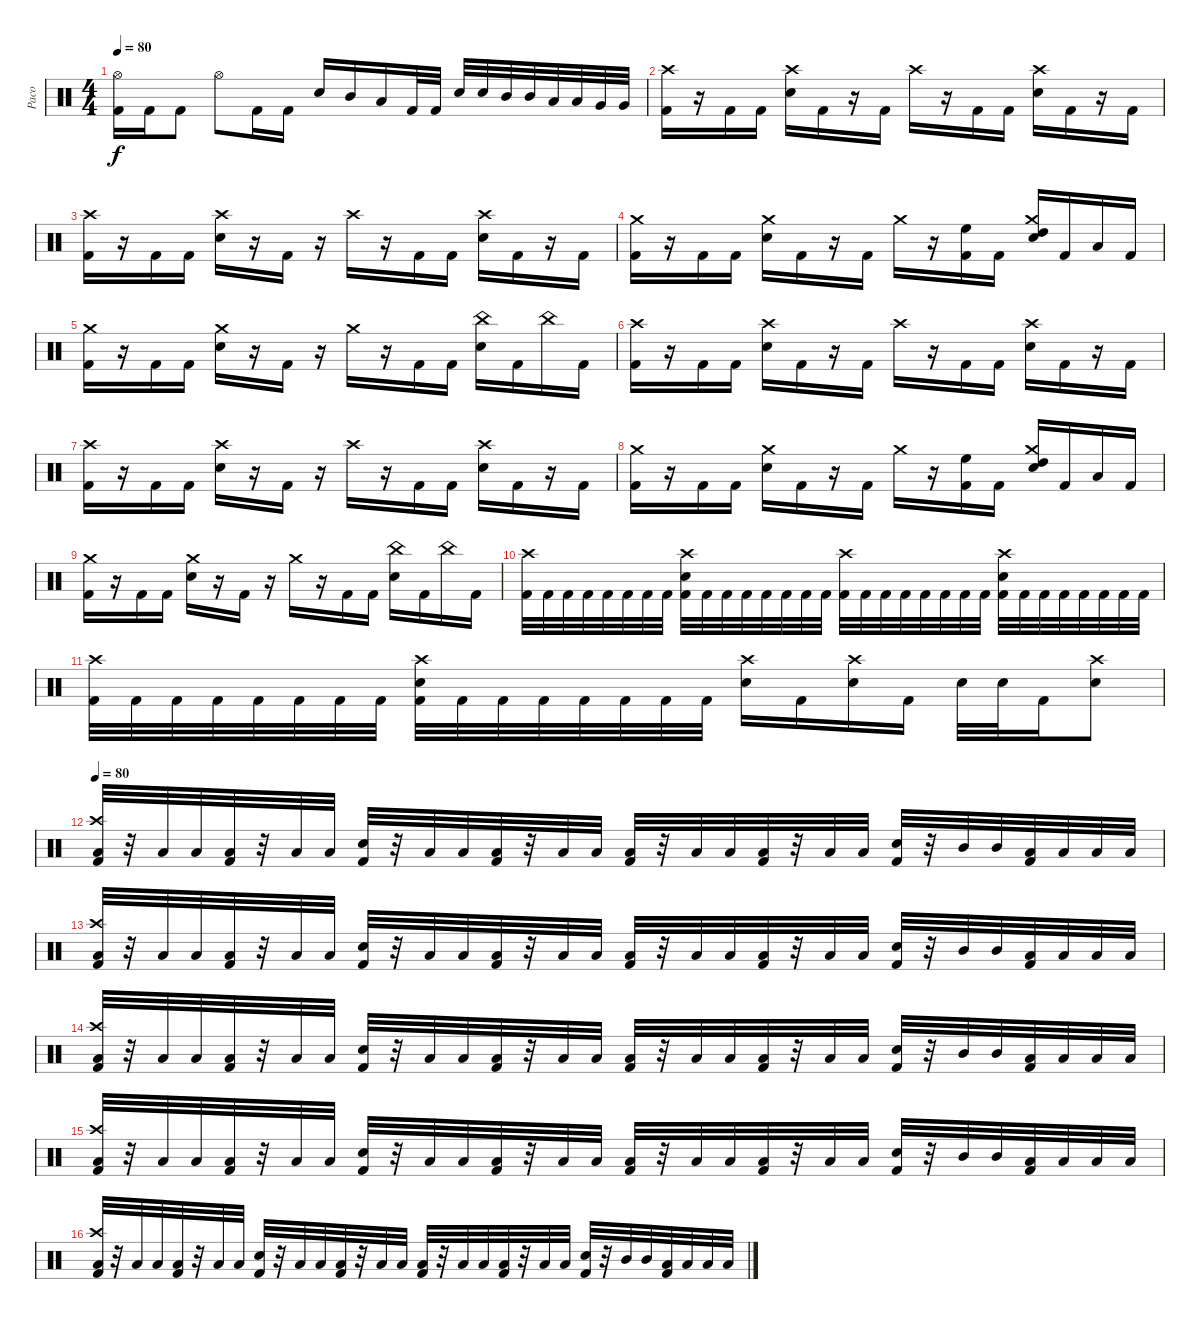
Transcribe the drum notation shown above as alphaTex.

\track ("Paco" "Paco") {instrument percussion}
\staff {score}
\articulation defaults
\ts (4 4)
\tempo 80
\clef neutral
\ks c
("Hi-Hat (open)" "Kick (hit) 2").16{dy f} "Kick (hit) 2".16 "Kick (hit) 2".8 "Hi-Hat (open)".8 "Kick (hit) 2".16 "Kick (hit) 2".16 "Electric Snare (hit)".16 "Mid Tom (hit)".16 "Low Tom (hit)".16 "Kick (hit) 2".32 "Kick (hit) 2".32 "Electric Snare (hit)".32 "Electric Snare (hit)".32 "Mid Tom (hit)".32 "Mid Tom (hit)".32 "Low Tom (hit)".32 "Low Tom (hit)".32 "Very Low Tom (hit)".32 "Very Low Tom (hit)".32 |
("Crash high (hit)" "Kick (hit) 2").16 r.16 "Kick (hit) 2".16 "Kick (hit) 2".16 ("Crash high (hit)" "Electric Snare (hit)").16 "Kick (hit) 2".16 r.16 "Kick (hit) 2".16 "Crash high (hit)".16 r.16 "Kick (hit) 2".16 "Kick (hit) 2".16 ("Crash high (hit)" "Electric Snare (hit)").16 "Kick (hit) 2".16 r.16 "Kick (hit) 2".16 |
("Crash high (hit)" "Kick (hit) 2").16 r.16 "Kick (hit) 2".16 "Kick (hit) 2".16 ("Crash high (hit)" "Electric Snare (hit)").16 r.16 "Kick (hit) 2".16 r.16 "Crash high (hit)".16 r.16 "Kick (hit) 2".16 "Kick (hit) 2".16 ("Crash high (hit)" "Electric Snare (hit)").16 "Kick (hit) 2".16 r.16 "Kick (hit) 2".16 |
("Crash medium (hit)" "Kick (hit) 2").16 r.16 "Kick (hit) 2".16 "Kick (hit) 2".16 ("Crash medium (hit)" "Electric Snare (hit)").16 "Kick (hit) 2".16 r.16 "Kick (hit) 2".16 "Crash medium (hit)".16 r.16 ("High Floor Tom (hit)" "Kick (hit) 2").16 "Kick (hit) 2".16 ("Crash medium (hit)" "High Tom (hit)" "Electric Snare (hit)").16 "Kick (hit) 2".16 "Low Tom (hit)".16 "Kick (hit) 2".16 |
("Crash medium (hit)" "Kick (hit) 2").16 r.16 "Kick (hit) 2".16 "Kick (hit) 2".16 ("Crash medium (hit)" "Electric Snare (hit)").16 r.16 "Kick (hit) 2".16 r.16 "Crash medium (hit)".16 r.16 "Kick (hit) 2".16 "Kick (hit) 2".16 ("China (hit)" "Electric Snare (hit)").16 "Kick (hit) 2".16 "China (hit)".16 "Kick (hit) 2".16 |
("Crash high (hit)" "Kick (hit) 2").16 r.16 "Kick (hit) 2".16 "Kick (hit) 2".16 ("Crash high (hit)" "Electric Snare (hit)").16 "Kick (hit) 2".16 r.16 "Kick (hit) 2".16 "Crash high (hit)".16 r.16 "Kick (hit) 2".16 "Kick (hit) 2".16 ("Crash high (hit)" "Electric Snare (hit)").16 "Kick (hit) 2".16 r.16 "Kick (hit) 2".16 |
("Crash high (hit)" "Kick (hit) 2").16 r.16 "Kick (hit) 2".16 "Kick (hit) 2".16 ("Crash high (hit)" "Electric Snare (hit)").16 r.16 "Kick (hit) 2".16 r.16 "Crash high (hit)".16 r.16 "Kick (hit) 2".16 "Kick (hit) 2".16 ("Crash high (hit)" "Electric Snare (hit)").16 "Kick (hit) 2".16 r.16 "Kick (hit) 2".16 |
("Crash medium (hit)" "Kick (hit) 2").16 r.16 "Kick (hit) 2".16 "Kick (hit) 2".16 ("Crash medium (hit)" "Electric Snare (hit)").16 "Kick (hit) 2".16 r.16 "Kick (hit) 2".16 "Crash medium (hit)".16 r.16 ("High Floor Tom (hit)" "Kick (hit) 2").16 "Kick (hit) 2".16 ("Crash medium (hit)" "High Tom (hit)" "Electric Snare (hit)").16 "Kick (hit) 2".16 "Low Tom (hit)".16 "Kick (hit) 2".16 |
("Crash medium (hit)" "Kick (hit) 2").16 r.16 "Kick (hit) 2".16 "Kick (hit) 2".16 ("Crash medium (hit)" "Electric Snare (hit)").16 r.16 "Kick (hit) 2".16 r.16 "Crash medium (hit)".16 r.16 "Kick (hit) 2".16 "Kick (hit) 2".16 ("China (hit)" "Electric Snare (hit)").16 "Kick (hit) 2".16 "China (hit)".16 "Kick (hit) 2".16 |
("Crash high (hit)" "Kick (hit) 2").32 "Kick (hit) 2".32 "Kick (hit) 2".32 "Kick (hit) 2".32 "Kick (hit) 2".32 "Kick (hit) 2".32 "Kick (hit) 2".32 "Kick (hit) 2".32 ("Crash high (hit)" "Electric Snare (hit)" "Kick (hit) 2").32 "Kick (hit) 2".32 "Kick (hit) 2".32 "Kick (hit) 2".32 "Kick (hit) 2".32 "Kick (hit) 2".32 "Kick (hit) 2".32 "Kick (hit) 2".32 ("Crash high (hit)" "Kick (hit) 2").32 "Kick (hit) 2".32 "Kick (hit) 2".32 "Kick (hit) 2".32 "Kick (hit) 2".32 "Kick (hit) 2".32 "Kick (hit) 2".32 "Kick (hit) 2".32 ("Crash high (hit)" "Electric Snare (hit)" "Kick (hit) 2").32 "Kick (hit) 2".32 "Kick (hit) 2".32 "Kick (hit) 2".32 "Kick (hit) 2".32 "Kick (hit) 2".32 "Kick (hit) 2".32 "Kick (hit) 2".32 |
("Crash high (hit)" "Kick (hit) 2").32 "Kick (hit) 2".32 "Kick (hit) 2".32 "Kick (hit) 2".32 "Kick (hit) 2".32 "Kick (hit) 2".32 "Kick (hit) 2".32 "Kick (hit) 2".32 ("Crash high (hit)" "Electric Snare (hit)" "Kick (hit) 2").32 "Kick (hit) 2".32 "Kick (hit) 2".32 "Kick (hit) 2".32 "Kick (hit) 2".32 "Kick (hit) 2".32 "Kick (hit) 2".32 "Kick (hit) 2".32 ("Crash high (hit)" "Electric Snare (hit)").16 "Kick (hit) 2".16 ("Crash high (hit)" "Electric Snare (hit)").16 "Kick (hit) 2".16 "Electric Snare (hit)".32 "Electric Snare (hit)".32 "Kick (hit) 2".16 ("Crash high (hit)" "Electric Snare (hit)").8 |
\tempo 80
("Crash high (hit)" "Low Floor Tom (hit)" "Kick (hit) 2").32 r.32 "Low Floor Tom (hit)".32 "Low Floor Tom (hit)".32 ("Low Floor Tom (hit)" "Kick (hit) 2").32 r.32 "Low Floor Tom (hit)".32 "Low Floor Tom (hit)".32 ("Electric Snare (hit)" "Kick (hit) 2").32 r.32 "Low Floor Tom (hit)".32 "Low Floor Tom (hit)".32 ("Low Floor Tom (hit)" "Kick (hit) 2").32 r.32 "Low Floor Tom (hit)".32 "Low Floor Tom (hit)".32 ("Low Floor Tom (hit)" "Kick (hit) 2").32 r.32 "Low Floor Tom (hit)".32 "Low Floor Tom (hit)".32 ("Low Floor Tom (hit)" "Kick (hit) 2").32 r.32 "Low Floor Tom (hit)".32 "Low Floor Tom (hit)".32 ("Electric Snare (hit)" "Kick (hit) 2").32 r.32 "Mid Tom (hit)".32 "Mid Tom (hit)".32 ("Low Tom (hit)" "Kick (hit) 2").32 "Low Tom (hit)".32 "Low Floor Tom (hit)".32 "Low Floor Tom (hit)".32 |
("Crash high (hit)" "Low Floor Tom (hit)" "Kick (hit) 2").32 r.32 "Low Floor Tom (hit)".32 "Low Floor Tom (hit)".32 ("Low Floor Tom (hit)" "Kick (hit) 2").32 r.32 "Low Floor Tom (hit)".32 "Low Floor Tom (hit)".32 ("Electric Snare (hit)" "Kick (hit) 2").32 r.32 "Low Floor Tom (hit)".32 "Low Floor Tom (hit)".32 ("Low Floor Tom (hit)" "Kick (hit) 2").32 r.32 "Low Floor Tom (hit)".32 "Low Floor Tom (hit)".32 ("Low Floor Tom (hit)" "Kick (hit) 2").32 r.32 "Low Floor Tom (hit)".32 "Low Floor Tom (hit)".32 ("Low Floor Tom (hit)" "Kick (hit) 2").32 r.32 "Low Floor Tom (hit)".32 "Low Floor Tom (hit)".32 ("Electric Snare (hit)" "Kick (hit) 2").32 r.32 "Mid Tom (hit)".32 "Mid Tom (hit)".32 ("Low Tom (hit)" "Kick (hit) 2").32 "Low Tom (hit)".32 "Low Floor Tom (hit)".32 "Low Floor Tom (hit)".32 |
("Crash high (hit)" "Low Floor Tom (hit)" "Kick (hit) 2").32 r.32 "Low Floor Tom (hit)".32 "Low Floor Tom (hit)".32 ("Low Floor Tom (hit)" "Kick (hit) 2").32 r.32 "Low Floor Tom (hit)".32 "Low Floor Tom (hit)".32 ("Electric Snare (hit)" "Kick (hit) 2").32 r.32 "Low Floor Tom (hit)".32 "Low Floor Tom (hit)".32 ("Low Floor Tom (hit)" "Kick (hit) 2").32 r.32 "Low Floor Tom (hit)".32 "Low Floor Tom (hit)".32 ("Low Floor Tom (hit)" "Kick (hit) 2").32 r.32 "Low Floor Tom (hit)".32 "Low Floor Tom (hit)".32 ("Low Floor Tom (hit)" "Kick (hit) 2").32 r.32 "Low Floor Tom (hit)".32 "Low Floor Tom (hit)".32 ("Electric Snare (hit)" "Kick (hit) 2").32 r.32 "Mid Tom (hit)".32 "Mid Tom (hit)".32 ("Low Tom (hit)" "Kick (hit) 2").32 "Low Tom (hit)".32 "Low Floor Tom (hit)".32 "Low Floor Tom (hit)".32 |
("Crash high (hit)" "Low Floor Tom (hit)" "Kick (hit) 2").32 r.32 "Low Floor Tom (hit)".32 "Low Floor Tom (hit)".32 ("Low Floor Tom (hit)" "Kick (hit) 2").32 r.32 "Low Floor Tom (hit)".32 "Low Floor Tom (hit)".32 ("Electric Snare (hit)" "Kick (hit) 2").32 r.32 "Low Floor Tom (hit)".32 "Low Floor Tom (hit)".32 ("Low Floor Tom (hit)" "Kick (hit) 2").32 r.32 "Low Floor Tom (hit)".32 "Low Floor Tom (hit)".32 ("Low Floor Tom (hit)" "Kick (hit) 2").32 r.32 "Low Floor Tom (hit)".32 "Low Floor Tom (hit)".32 ("Low Floor Tom (hit)" "Kick (hit) 2").32 r.32 "Low Floor Tom (hit)".32 "Low Floor Tom (hit)".32 ("Electric Snare (hit)" "Kick (hit) 2").32 r.32 "Mid Tom (hit)".32 "Mid Tom (hit)".32 ("Low Tom (hit)" "Kick (hit) 2").32 "Low Tom (hit)".32 "Low Floor Tom (hit)".32 "Low Floor Tom (hit)".32 |
("Crash high (hit)" "Low Floor Tom (hit)" "Kick (hit) 2").32 r.32 "Low Floor Tom (hit)".32 "Low Floor Tom (hit)".32 ("Low Floor Tom (hit)" "Kick (hit) 2").32 r.32 "Low Floor Tom (hit)".32 "Low Floor Tom (hit)".32 ("Electric Snare (hit)" "Kick (hit) 2").32 r.32 "Low Floor Tom (hit)".32 "Low Floor Tom (hit)".32 ("Low Floor Tom (hit)" "Kick (hit) 2").32 r.32 "Low Floor Tom (hit)".32 "Low Floor Tom (hit)".32 ("Low Floor Tom (hit)" "Kick (hit) 2").32 r.32 "Low Floor Tom (hit)".32 "Low Floor Tom (hit)".32 ("Low Floor Tom (hit)" "Kick (hit) 2").32 r.32 "Low Floor Tom (hit)".32 "Low Floor Tom (hit)".32 ("Electric Snare (hit)" "Kick (hit) 2").32 r.32 "Mid Tom (hit)".32 "Mid Tom (hit)".32 ("Low Tom (hit)" "Kick (hit) 2").32 "Low Tom (hit)".32 "Low Floor Tom (hit)".32 "Low Floor Tom (hit)".32
